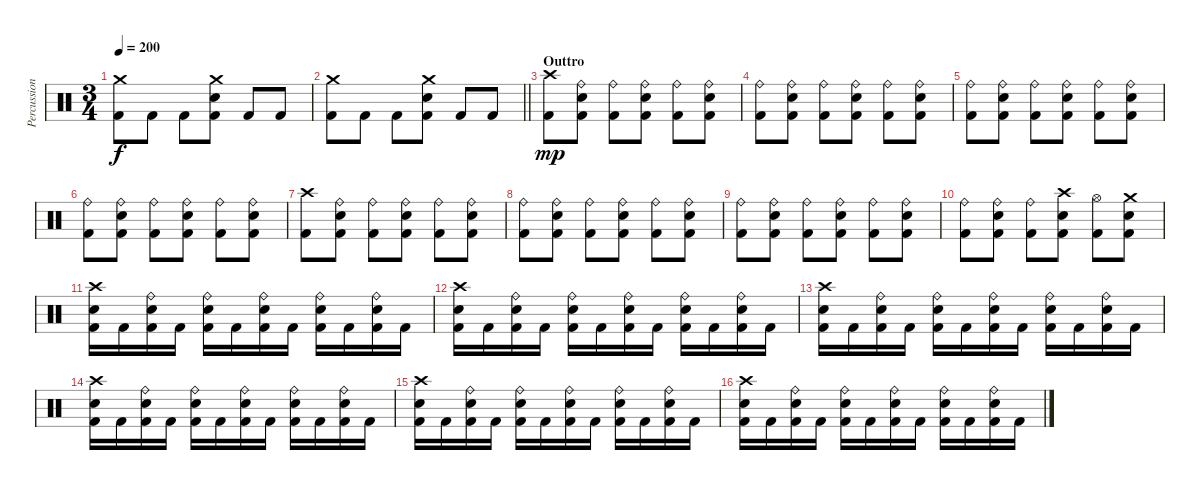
\track ("Percussion" "Percussion") {instrument percussion}
\staff {score}
\articulation defaults
\ts (3 4)
\tempo 200
\clef neutral
\ks c
("Crash medium (hit)" "Kick (hit) 2").8{dy f} "Kick (hit) 2".8 "Kick (hit) 2".8 ("Crash medium (hit)" "Electric Snare (hit)" "Kick (hit) 2").8 "Kick (hit) 2".8 "Kick (hit) 2".8 |
\barLineRight lightlight
("Crash medium (hit)" "Kick (hit) 2").8 "Kick (hit) 2".8 "Kick (hit) 2".8 ("Crash medium (hit)" "Electric Snare (hit)" "Kick (hit) 2").8 "Kick (hit) 2".8 "Kick (hit) 2".8 |
\section ("" "Outtro")
("Crash high (hit)" "Kick (hit) 2").8{dy mp} ("Ride (bell)" "Electric Snare (hit)" "Kick (hit) 2").8 ("Ride (bell)" "Kick (hit) 2").8 ("Ride (bell)" "Electric Snare (hit)" "Kick (hit) 2").8 ("Ride (bell)" "Kick (hit) 2").8 ("Ride (bell)" "Electric Snare (hit)" "Kick (hit) 2").8 |
("Ride (bell)" "Kick (hit) 2").8 ("Ride (bell)" "Electric Snare (hit)" "Kick (hit) 2").8 ("Ride (bell)" "Kick (hit) 2").8 ("Ride (bell)" "Electric Snare (hit)" "Kick (hit) 2").8 ("Ride (bell)" "Kick (hit) 2").8 ("Ride (bell)" "Electric Snare (hit)" "Kick (hit) 2").8 |
("Ride (bell)" "Kick (hit) 2").8 ("Ride (bell)" "Electric Snare (hit)" "Kick (hit) 2").8 ("Ride (bell)" "Kick (hit) 2").8 ("Ride (bell)" "Electric Snare (hit)" "Kick (hit) 2").8 ("Ride (bell)" "Kick (hit) 2").8 ("Ride (bell)" "Electric Snare (hit)" "Kick (hit) 2").8 |
("Ride (bell)" "Kick (hit) 2").8 ("Ride (bell)" "Electric Snare (hit)" "Kick (hit) 2").8 ("Ride (bell)" "Kick (hit) 2").8 ("Ride (bell)" "Electric Snare (hit)" "Kick (hit) 2").8 ("Ride (bell)" "Kick (hit) 2").8 ("Ride (bell)" "Electric Snare (hit)" "Kick (hit) 2").8 |
("Crash high (hit)" "Kick (hit) 2").8 ("Ride (bell)" "Electric Snare (hit)" "Kick (hit) 2").8 ("Ride (bell)" "Kick (hit) 2").8 ("Ride (bell)" "Electric Snare (hit)" "Kick (hit) 2").8 ("Ride (bell)" "Kick (hit) 2").8 ("Ride (bell)" "Electric Snare (hit)" "Kick (hit) 2").8 |
("Ride (bell)" "Kick (hit) 2").8 ("Ride (bell)" "Electric Snare (hit)" "Kick (hit) 2").8 ("Ride (bell)" "Kick (hit) 2").8 ("Ride (bell)" "Electric Snare (hit)" "Kick (hit) 2").8 ("Ride (bell)" "Kick (hit) 2").8 ("Ride (bell)" "Electric Snare (hit)" "Kick (hit) 2").8 |
("Ride (bell)" "Kick (hit) 2").8 ("Ride (bell)" "Electric Snare (hit)" "Kick (hit) 2").8 ("Ride (bell)" "Kick (hit) 2").8 ("Ride (bell)" "Electric Snare (hit)" "Kick (hit) 2").8 ("Ride (bell)" "Kick (hit) 2").8 ("Ride (bell)" "Electric Snare (hit)" "Kick (hit) 2").8 |
("Ride (bell)" "Kick (hit) 2").8 ("Ride (bell)" "Electric Snare (hit)" "Kick (hit) 2").8 ("Ride (bell)" "Kick (hit) 2").8 ("Crash high (hit)" "Electric Snare (hit)" "Kick (hit) 2").8 ("Hi-Hat (open)" "Kick (hit) 2").8 ("Crash medium (hit)" "Electric Snare (hit)" "Kick (hit) 2").8 |
("Crash high (hit)" "Electric Snare (hit)" "Kick (hit) 2").16 "Kick (hit) 2".16 ("Ride (bell)" "Electric Snare (hit)" "Kick (hit) 2").16 "Kick (hit) 2".16 ("Ride (bell)" "Electric Snare (hit)" "Kick (hit) 2").16 "Kick (hit) 2".16 ("Ride (bell)" "Electric Snare (hit)" "Kick (hit) 2").16 "Kick (hit) 2".16 ("Ride (bell)" "Electric Snare (hit)" "Kick (hit) 2").16 "Kick (hit) 2".16 ("Ride (bell)" "Electric Snare (hit)" "Kick (hit) 2").16 "Kick (hit) 2".16 |
("Crash high (hit)" "Electric Snare (hit)" "Kick (hit) 2").16 "Kick (hit) 2".16 ("Ride (bell)" "Electric Snare (hit)" "Kick (hit) 2").16 "Kick (hit) 2".16 ("Ride (bell)" "Electric Snare (hit)" "Kick (hit) 2").16 "Kick (hit) 2".16 ("Ride (bell)" "Electric Snare (hit)" "Kick (hit) 2").16 "Kick (hit) 2".16 ("Ride (bell)" "Electric Snare (hit)" "Kick (hit) 2").16 "Kick (hit) 2".16 ("Ride (bell)" "Electric Snare (hit)" "Kick (hit) 2").16 "Kick (hit) 2".16 |
("Crash high (hit)" "Electric Snare (hit)" "Kick (hit) 2").16 "Kick (hit) 2".16 ("Ride (bell)" "Electric Snare (hit)" "Kick (hit) 2").16 "Kick (hit) 2".16 ("Ride (bell)" "Electric Snare (hit)" "Kick (hit) 2").16 "Kick (hit) 2".16 ("Ride (bell)" "Electric Snare (hit)" "Kick (hit) 2").16 "Kick (hit) 2".16 ("Ride (bell)" "Electric Snare (hit)" "Kick (hit) 2").16 "Kick (hit) 2".16 ("Ride (bell)" "Electric Snare (hit)" "Kick (hit) 2").16 "Kick (hit) 2".16 |
("Crash high (hit)" "Electric Snare (hit)" "Kick (hit) 2").16 "Kick (hit) 2".16 ("Ride (bell)" "Electric Snare (hit)" "Kick (hit) 2").16 "Kick (hit) 2".16 ("Ride (bell)" "Electric Snare (hit)" "Kick (hit) 2").16 "Kick (hit) 2".16 ("Ride (bell)" "Electric Snare (hit)" "Kick (hit) 2").16 "Kick (hit) 2".16 ("Ride (bell)" "Electric Snare (hit)" "Kick (hit) 2").16 "Kick (hit) 2".16 ("Ride (bell)" "Electric Snare (hit)" "Kick (hit) 2").16 "Kick (hit) 2".16 |
("Crash high (hit)" "Electric Snare (hit)" "Kick (hit) 2").16 "Kick (hit) 2".16 ("Ride (bell)" "Electric Snare (hit)" "Kick (hit) 2").16 "Kick (hit) 2".16 ("Ride (bell)" "Electric Snare (hit)" "Kick (hit) 2").16 "Kick (hit) 2".16 ("Ride (bell)" "Electric Snare (hit)" "Kick (hit) 2").16 "Kick (hit) 2".16 ("Ride (bell)" "Electric Snare (hit)" "Kick (hit) 2").16 "Kick (hit) 2".16 ("Ride (bell)" "Electric Snare (hit)" "Kick (hit) 2").16 "Kick (hit) 2".16 |
("Crash high (hit)" "Electric Snare (hit)" "Kick (hit) 2").16 "Kick (hit) 2".16 ("Ride (bell)" "Electric Snare (hit)" "Kick (hit) 2").16 "Kick (hit) 2".16 ("Ride (bell)" "Electric Snare (hit)" "Kick (hit) 2").16 "Kick (hit) 2".16 ("Ride (bell)" "Electric Snare (hit)" "Kick (hit) 2").16 "Kick (hit) 2".16 ("Ride (bell)" "Electric Snare (hit)" "Kick (hit) 2").16 "Kick (hit) 2".16 ("Ride (bell)" "Electric Snare (hit)" "Kick (hit) 2").16 "Kick (hit) 2".16
